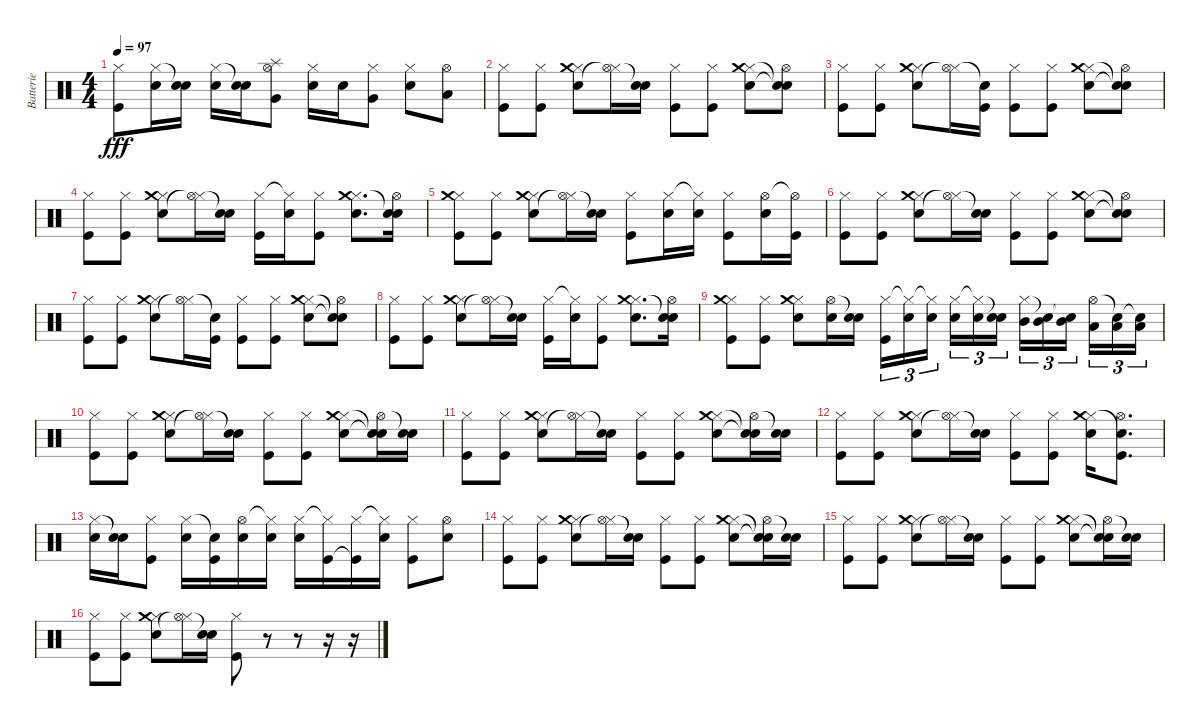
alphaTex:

\track ("Batterie" "Batterie") {instrument percussion}
\staff {score}
\articulation defaults
\ts (4 4)
\tempo 97
\clef neutral
\ks c
("Kick (hit)" "Hi-Hat (closed)").8{dy fff} ("Snare (hit) 2" "Hi-Hat (closed)").16 ("Snare (hit) 2" "Snare (hit)"{t}).16 ("Snare (hit) 2" "Hi-Hat (closed)").16 ("Snare (hit) 2" "Snare (hit)"{t}).16 ("Very Low Tom (hit)" "Hi-Hat (open)" "Splash (hit)").8 ("Snare (hit) 2" "Hi-Hat (closed)").16 "Snare (hit) 2".16 ("Very Low Tom (hit)" "Hi-Hat (closed)").8 ("Snare (hit) 2" "Hi-Hat (closed)").8 ("Low Floor Tom (hit)" "Hi-Hat (open)").8 |
("Kick (hit)" "Hi-Hat (closed)").8 ("Kick (hit)" "Hi-Hat (closed)").8 ("Snare (hit) 2" "Hi-Hat (closed)" "Crash medium (hit)").8 ("Hi-Hat (closed)"{t} "Hi-Hat (open)").16 ("Snare (hit) 2" "Snare (hit)"{t}).16 ("Kick (hit)" "Hi-Hat (closed)").8 ("Kick (hit)" "Hi-Hat (closed)").8 ("Snare (hit) 2" "Hi-Hat (closed)" "Crash medium (hit)").8 ("Snare (hit)"{t} "Hi-Hat (open)" "Snare (hit)"{t}).8 |
("Kick (hit)" "Hi-Hat (closed)").8 ("Kick (hit)" "Hi-Hat (closed)").8 ("Snare (hit) 2" "Hi-Hat (closed)" "Crash medium (hit)").8 ("Hi-Hat (closed)"{t} "Hi-Hat (open)").16 ("Kick (hit)" "Snare (hit)"{t}).16 ("Kick (hit)" "Hi-Hat (closed)").8 ("Kick (hit)" "Hi-Hat (closed)").8 ("Snare (hit) 2" "Hi-Hat (closed)" "Crash medium (hit)").8 ("Snare (hit)"{t} "Hi-Hat (open)" "Snare (hit)"{t}).8 |
("Kick (hit)" "Hi-Hat (closed)").8 ("Kick (hit)" "Hi-Hat (closed)").8 ("Snare (hit) 2" "Hi-Hat (closed)" "Crash medium (hit)").8 ("Hi-Hat (closed)"{t} "Hi-Hat (open)").16 ("Snare (hit) 2" "Snare (hit)"{t}).16 ("Kick (hit)" "Hi-Hat (closed)").16 ("Snare (hit) 2" "Hi-Hat (closed)"{t}).16 ("Kick (hit)" "Hi-Hat (closed)").8 ("Snare (hit) 2" "Hi-Hat (closed)" "Crash medium (hit)").8{d} ("Snare (hit) 2" "Hi-Hat (open)" "Snare (hit)"{t}).16 |
("Kick (hit)" "Hi-Hat (closed)" "Crash medium (hit)").8 ("Kick (hit)" "Hi-Hat (closed)").8 ("Snare (hit) 2" "Hi-Hat (closed)" "Crash medium (hit)").8 ("Hi-Hat (closed)"{t} "Hi-Hat (open)").16 ("Snare (hit) 2" "Snare (hit)"{t}).16 ("Kick (hit)" "Hi-Hat (closed)").8 ("Snare (hit) 2" "Hi-Hat (closed)").16 ("Snare (hit) 2" "Hi-Hat (closed)"{t}).16 ("Kick (hit)" "Hi-Hat (closed)").8 ("Snare (hit) 2" "Hi-Hat (open)").16 ("Kick (hit)" "Hi-Hat (open)"{t}).16 |
("Kick (hit)" "Hi-Hat (closed)").8 ("Kick (hit)" "Hi-Hat (closed)").8 ("Snare (hit) 2" "Hi-Hat (closed)" "Crash medium (hit)").8 ("Hi-Hat (closed)"{t} "Hi-Hat (open)").16 ("Snare (hit) 2" "Snare (hit)"{t}).16 ("Kick (hit)" "Hi-Hat (closed)").8 ("Kick (hit)" "Hi-Hat (closed)").8 ("Snare (hit) 2" "Hi-Hat (closed)" "Crash medium (hit)").8 ("Snare (hit)"{t} "Hi-Hat (open)" "Snare (hit)"{t}).8 |
("Kick (hit)" "Hi-Hat (closed)").8 ("Kick (hit)" "Hi-Hat (closed)").8 ("Snare (hit) 2" "Hi-Hat (closed)" "Crash medium (hit)").8 ("Hi-Hat (closed)"{t} "Hi-Hat (open)").16 ("Kick (hit)" "Snare (hit)"{t}).16 ("Kick (hit)" "Hi-Hat (closed)").8 ("Kick (hit)" "Hi-Hat (closed)").8 ("Snare (hit) 2" "Hi-Hat (closed)" "Crash medium (hit)").8 ("Snare (hit)"{t} "Hi-Hat (open)" "Snare (hit)"{t}).8 |
("Kick (hit)" "Hi-Hat (closed)").8 ("Kick (hit)" "Hi-Hat (closed)").8 ("Snare (hit) 2" "Hi-Hat (closed)" "Crash medium (hit)").8 ("Hi-Hat (closed)"{t} "Hi-Hat (open)").16 ("Snare (hit) 2" "Snare (hit)"{t}).16 ("Kick (hit)" "Hi-Hat (closed)").16 ("Snare (hit) 2" "Hi-Hat (closed)"{t}).16 ("Kick (hit)" "Hi-Hat (closed)").8 ("Snare (hit) 2" "Hi-Hat (closed)" "Crash medium (hit)").8{d} ("Snare (hit) 2" "Hi-Hat (open)" "Snare (hit)"{t}).16 |
("Kick (hit)" "Hi-Hat (closed)" "Crash medium (hit)").8 ("Kick (hit)" "Hi-Hat (closed)").8 ("Snare (hit) 2" "Hi-Hat (closed)" "Crash medium (hit)").8 ("Snare (hit) 2" "Hi-Hat (open)").16 ("Snare (hit) 2" "Snare (hit)"{t}).16 ("Kick (hit)" "Hi-Hat (closed)").16{tu (3 2)} ("Snare (hit) 2" "Hi-Hat (closed)"{t}).16{tu (3 2)} ("Snare (hit) 2" "Hi-Hat (closed)"{t}).16{tu (3 2) beam splitsecondary} ("Snare (hit) 2" "Hi-Hat (closed)").16{tu (3 2)} ("Snare (hit) 2" "Hi-Hat (closed)"{t}).16{tu (3 2)} ("Snare (hit) 2" "Snare (hit)"{t}).16{tu (3 2)} ("Mid Tom (hit)" "Hi-Hat (closed)").16{tu (3 2)} ("Mid Tom (hit)" "Snare (hit)"{t}).16{tu (3 2)} ("Mid Tom (hit)" "Snare (hit)"{t}).16{tu (3 2) beam splitsecondary} ("Low Tom (hit)" "Hi-Hat (open)").16{tu (3 2)} ("Low Tom (hit)" "Snare (hit)"{t}).16{tu (3 2)} ("Low Tom (hit)" "Snare (hit)"{t}).16{tu (3 2)} |
("Kick (hit)" "Hi-Hat (closed)").8 ("Kick (hit)" "Hi-Hat (closed)").8 ("Snare (hit) 2" "Hi-Hat (closed)" "Crash medium (hit)").8 ("Hi-Hat (closed)"{t} "Hi-Hat (open)").16 ("Snare (hit) 2" "Snare (hit)"{t}).16 ("Kick (hit)" "Hi-Hat (closed)").8 ("Kick (hit)" "Hi-Hat (closed)").8 ("Snare (hit) 2" "Hi-Hat (closed)" "Crash medium (hit)").8 ("Snare (hit)"{t} "Hi-Hat (open)" "Snare (hit)"{t}).16 ("Snare (hit) 2" "Snare (hit)"{t}).16 |
("Kick (hit)" "Hi-Hat (closed)").8 ("Kick (hit)" "Hi-Hat (closed)").8 ("Snare (hit) 2" "Hi-Hat (closed)" "Crash medium (hit)").8 ("Hi-Hat (closed)"{t} "Hi-Hat (open)").16 ("Snare (hit) 2" "Snare (hit)"{t}).16 ("Kick (hit)" "Hi-Hat (closed)").8 ("Kick (hit)" "Hi-Hat (closed)").8 ("Snare (hit) 2" "Hi-Hat (closed)" "Crash medium (hit)").8 ("Snare (hit)"{t} "Hi-Hat (open)" "Snare (hit)"{t}).16 ("Snare (hit) 2" "Snare (hit)"{t}).16 |
("Kick (hit)" "Hi-Hat (closed)").8 ("Kick (hit)" "Hi-Hat (closed)").8 ("Snare (hit) 2" "Hi-Hat (closed)" "Crash medium (hit)").8 ("Hi-Hat (closed)"{t} "Hi-Hat (open)").16 ("Snare (hit) 2" "Snare (hit)"{t}).16 ("Kick (hit)" "Hi-Hat (closed)").8 ("Kick (hit)" "Hi-Hat (closed)").8 ("Snare (hit) 2" "Hi-Hat (closed)" "Crash medium (hit)").16 ("Kick (hit)" "Hi-Hat (open)" "Snare (hit)"{t}).8{d} |
("Snare (hit) 2" "Hi-Hat (closed)").16 ("Snare (hit) 2" "Snare (hit)"{t}).16 ("Kick (hit)" "Hi-Hat (closed)").8 ("Snare (hit) 2" "Hi-Hat (closed)").16 ("Kick (hit)" "Snare (hit)"{t}).16 ("Snare (hit) 2" "Hi-Hat (open)").16 ("Snare (hit) 2" "Hi-Hat (closed)"{t}).16 ("Snare (hit) 2" "Hi-Hat (closed)").16 ("Kick (hit)" "Hi-Hat (closed)"{t}).16 ("Kick (hit)"{t} "Hi-Hat (closed)").16 ("Snare (hit) 2" "Hi-Hat (closed)"{t}).16 ("Kick (hit)" "Hi-Hat (closed)").8 ("Snare (hit) 2" "Hi-Hat (open)").8 |
("Kick (hit)" "Hi-Hat (closed)").8 ("Kick (hit)" "Hi-Hat (closed)").8 ("Snare (hit) 2" "Hi-Hat (closed)" "Crash medium (hit)").8 ("Hi-Hat (closed)"{t} "Hi-Hat (open)").16 ("Snare (hit) 2" "Snare (hit)"{t}).16 ("Kick (hit)" "Hi-Hat (closed)").8 ("Kick (hit)" "Hi-Hat (closed)").8 ("Snare (hit) 2" "Hi-Hat (closed)" "Crash medium (hit)").8 ("Snare (hit)"{t} "Hi-Hat (open)" "Snare (hit)"{t}).16 ("Snare (hit) 2" "Snare (hit)"{t}).16 |
("Kick (hit)" "Hi-Hat (closed)").8 ("Kick (hit)" "Hi-Hat (closed)").8 ("Snare (hit) 2" "Hi-Hat (closed)" "Crash medium (hit)").8 ("Hi-Hat (closed)"{t} "Hi-Hat (open)").16 ("Snare (hit) 2" "Snare (hit)"{t}).16 ("Kick (hit)" "Hi-Hat (closed)").8 ("Kick (hit)" "Hi-Hat (closed)").8 ("Snare (hit) 2" "Hi-Hat (closed)" "Crash medium (hit)").8 ("Snare (hit)"{t} "Hi-Hat (open)" "Snare (hit)"{t}).16 ("Snare (hit) 2" "Snare (hit)"{t}).16 |
("Kick (hit)" "Hi-Hat (closed)").8 ("Kick (hit)" "Hi-Hat (closed)").8 ("Snare (hit) 2" "Hi-Hat (closed)" "Crash medium (hit)").8 ("Hi-Hat (closed)"{t} "Hi-Hat (open)").16 ("Snare (hit) 2" "Snare (hit)"{t}).16 ("Kick (hit)" "Hi-Hat (closed)").8 r.8 r.8 r.16 r.16
